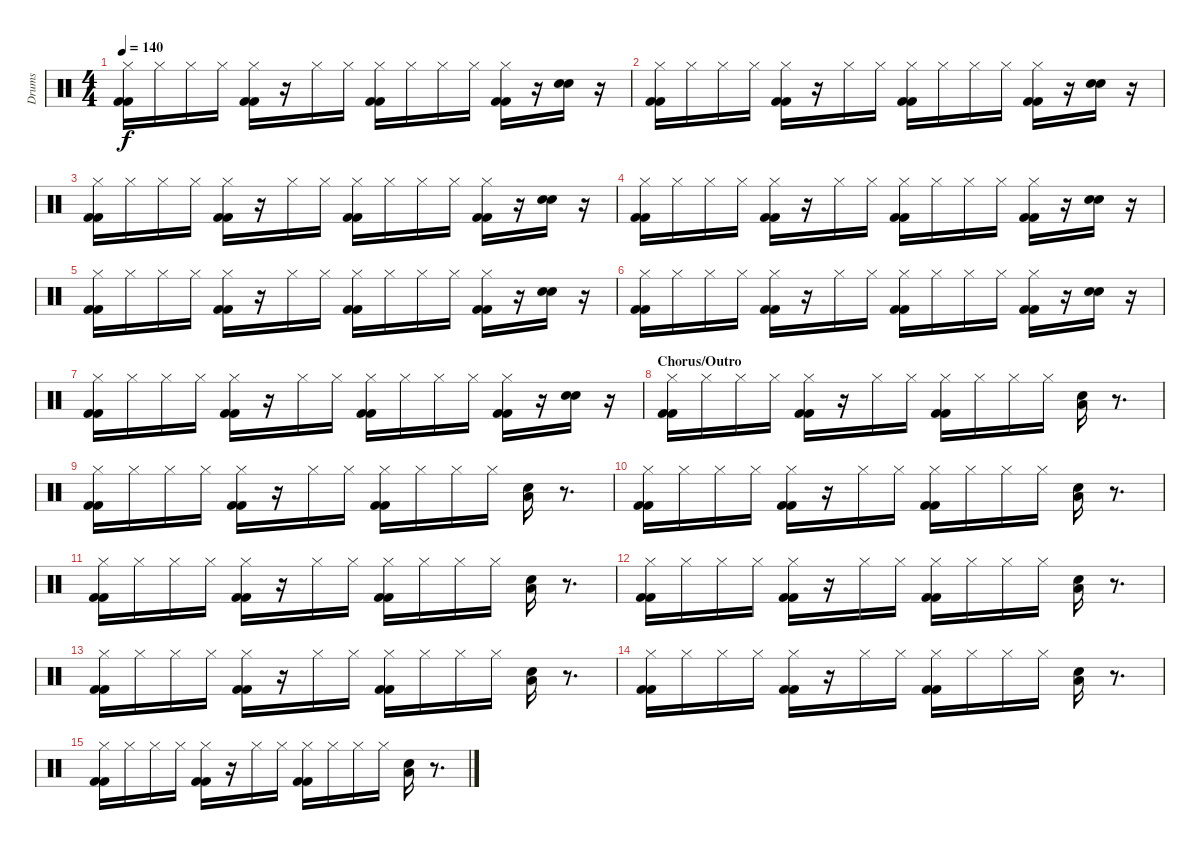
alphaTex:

\track ("Drums" "Drums") {instrument percussion}
\staff {score}
\articulation defaults
\ts (4 4)
\tempo 140
\clef neutral
\ks c
("Hi-Hat (closed)" "Kick (hit) 2" "Kick (hit) 2").16{dy f} "Hi-Hat (closed)".16 "Hi-Hat (closed)".16 "Hi-Hat (closed)".16 ("Hi-Hat (closed)" "Kick (hit) 2" "Kick (hit) 2").16 r.16 "Hi-Hat (closed)".16 "Hi-Hat (closed)".16 ("Hi-Hat (closed)" "Kick (hit) 2" "Kick (hit) 2").16 "Hi-Hat (closed)".16 "Hi-Hat (closed)".16 "Hi-Hat (closed)".16 ("Hi-Hat (closed)" "Kick (hit) 2" "Kick (hit) 2").16 r.16 ("Snare (hit) 2" "Snare (hit) 2").16 r.16 |
("Hi-Hat (closed)" "Kick (hit) 2" "Kick (hit) 2").16 "Hi-Hat (closed)".16 "Hi-Hat (closed)".16 "Hi-Hat (closed)".16 ("Hi-Hat (closed)" "Kick (hit) 2" "Kick (hit) 2").16 r.16 "Hi-Hat (closed)".16 "Hi-Hat (closed)".16 ("Hi-Hat (closed)" "Kick (hit) 2" "Kick (hit) 2").16 "Hi-Hat (closed)".16 "Hi-Hat (closed)".16 "Hi-Hat (closed)".16 ("Hi-Hat (closed)" "Kick (hit) 2" "Kick (hit) 2").16 r.16 ("Snare (hit) 2" "Snare (hit) 2").16 r.16 |
("Hi-Hat (closed)" "Kick (hit) 2" "Kick (hit) 2").16 "Hi-Hat (closed)".16 "Hi-Hat (closed)".16 "Hi-Hat (closed)".16 ("Hi-Hat (closed)" "Kick (hit) 2" "Kick (hit) 2").16 r.16 "Hi-Hat (closed)".16 "Hi-Hat (closed)".16 ("Hi-Hat (closed)" "Kick (hit) 2" "Kick (hit) 2").16 "Hi-Hat (closed)".16 "Hi-Hat (closed)".16 "Hi-Hat (closed)".16 ("Hi-Hat (closed)" "Kick (hit) 2" "Kick (hit) 2").16 r.16 ("Snare (hit) 2" "Snare (hit) 2").16 r.16 |
("Hi-Hat (closed)" "Kick (hit) 2" "Kick (hit) 2").16 "Hi-Hat (closed)".16 "Hi-Hat (closed)".16 "Hi-Hat (closed)".16 ("Hi-Hat (closed)" "Kick (hit) 2" "Kick (hit) 2").16 r.16 "Hi-Hat (closed)".16 "Hi-Hat (closed)".16 ("Hi-Hat (closed)" "Kick (hit) 2" "Kick (hit) 2").16 "Hi-Hat (closed)".16 "Hi-Hat (closed)".16 "Hi-Hat (closed)".16 ("Hi-Hat (closed)" "Kick (hit) 2" "Kick (hit) 2").16 r.16 ("Snare (hit) 2" "Snare (hit) 2").16 r.16 |
("Hi-Hat (closed)" "Kick (hit) 2" "Kick (hit) 2").16 "Hi-Hat (closed)".16 "Hi-Hat (closed)".16 "Hi-Hat (closed)".16 ("Hi-Hat (closed)" "Kick (hit) 2" "Kick (hit) 2").16 r.16 "Hi-Hat (closed)".16 "Hi-Hat (closed)".16 ("Hi-Hat (closed)" "Kick (hit) 2" "Kick (hit) 2").16 "Hi-Hat (closed)".16 "Hi-Hat (closed)".16 "Hi-Hat (closed)".16 ("Hi-Hat (closed)" "Kick (hit) 2" "Kick (hit) 2").16 r.16 ("Snare (hit) 2" "Snare (hit) 2").16 r.16 |
("Hi-Hat (closed)" "Kick (hit) 2" "Kick (hit) 2").16 "Hi-Hat (closed)".16 "Hi-Hat (closed)".16 "Hi-Hat (closed)".16 ("Hi-Hat (closed)" "Kick (hit) 2" "Kick (hit) 2").16 r.16 "Hi-Hat (closed)".16 "Hi-Hat (closed)".16 ("Hi-Hat (closed)" "Kick (hit) 2" "Kick (hit) 2").16 "Hi-Hat (closed)".16 "Hi-Hat (closed)".16 "Hi-Hat (closed)".16 ("Hi-Hat (closed)" "Kick (hit) 2" "Kick (hit) 2").16 r.16 ("Snare (hit) 2" "Snare (hit) 2").16 r.16 |
("Hi-Hat (closed)" "Kick (hit) 2" "Kick (hit) 2").16 "Hi-Hat (closed)".16 "Hi-Hat (closed)".16 "Hi-Hat (closed)".16 ("Hi-Hat (closed)" "Kick (hit) 2" "Kick (hit) 2").16 r.16 "Hi-Hat (closed)".16 "Hi-Hat (closed)".16 ("Hi-Hat (closed)" "Kick (hit) 2" "Kick (hit) 2").16 "Hi-Hat (closed)".16 "Hi-Hat (closed)".16 "Hi-Hat (closed)".16 ("Hi-Hat (closed)" "Kick (hit) 2" "Kick (hit) 2").16 r.16 ("Snare (hit) 2" "Snare (hit) 2").16 r.16 |
\section ("" "Chorus/Outro")
("Hi-Hat (closed)" "Kick (hit) 2" "Kick (hit) 2").16 "Hi-Hat (closed)".16 "Hi-Hat (closed)".16 "Hi-Hat (closed)".16 ("Hi-Hat (closed)" "Kick (hit) 2" "Kick (hit) 2").16 r.16 "Hi-Hat (closed)".16 "Hi-Hat (closed)".16 ("Hi-Hat (closed)" "Kick (hit) 2" "Kick (hit) 2").16 "Hi-Hat (closed)".16 "Hi-Hat (closed)".16 "Hi-Hat (closed)".16 ("Snare (hit) 2" "Low Floor Tom (hit)").16 r.8{d} |
("Hi-Hat (closed)" "Kick (hit) 2" "Kick (hit) 2").16 "Hi-Hat (closed)".16 "Hi-Hat (closed)".16 "Hi-Hat (closed)".16 ("Hi-Hat (closed)" "Kick (hit) 2" "Kick (hit) 2").16 r.16 "Hi-Hat (closed)".16 "Hi-Hat (closed)".16 ("Hi-Hat (closed)" "Kick (hit) 2" "Kick (hit) 2").16 "Hi-Hat (closed)".16 "Hi-Hat (closed)".16 "Hi-Hat (closed)".16 ("Snare (hit) 2" "Low Floor Tom (hit)").16 r.8{d} |
("Hi-Hat (closed)" "Kick (hit) 2" "Kick (hit) 2").16 "Hi-Hat (closed)".16 "Hi-Hat (closed)".16 "Hi-Hat (closed)".16 ("Hi-Hat (closed)" "Kick (hit) 2" "Kick (hit) 2").16 r.16 "Hi-Hat (closed)".16 "Hi-Hat (closed)".16 ("Hi-Hat (closed)" "Kick (hit) 2" "Kick (hit) 2").16 "Hi-Hat (closed)".16 "Hi-Hat (closed)".16 "Hi-Hat (closed)".16 ("Snare (hit) 2" "Low Floor Tom (hit)").16 r.8{d} |
("Hi-Hat (closed)" "Kick (hit) 2" "Kick (hit) 2").16 "Hi-Hat (closed)".16 "Hi-Hat (closed)".16 "Hi-Hat (closed)".16 ("Hi-Hat (closed)" "Kick (hit) 2" "Kick (hit) 2").16 r.16 "Hi-Hat (closed)".16 "Hi-Hat (closed)".16 ("Hi-Hat (closed)" "Kick (hit) 2" "Kick (hit) 2").16 "Hi-Hat (closed)".16 "Hi-Hat (closed)".16 "Hi-Hat (closed)".16 ("Snare (hit) 2" "Low Floor Tom (hit)").16 r.8{d} |
("Hi-Hat (closed)" "Kick (hit) 2" "Kick (hit) 2").16 "Hi-Hat (closed)".16 "Hi-Hat (closed)".16 "Hi-Hat (closed)".16 ("Hi-Hat (closed)" "Kick (hit) 2" "Kick (hit) 2").16 r.16 "Hi-Hat (closed)".16 "Hi-Hat (closed)".16 ("Hi-Hat (closed)" "Kick (hit) 2" "Kick (hit) 2").16 "Hi-Hat (closed)".16 "Hi-Hat (closed)".16 "Hi-Hat (closed)".16 ("Snare (hit) 2" "Low Floor Tom (hit)").16 r.8{d} |
("Hi-Hat (closed)" "Kick (hit) 2" "Kick (hit) 2").16 "Hi-Hat (closed)".16 "Hi-Hat (closed)".16 "Hi-Hat (closed)".16 ("Hi-Hat (closed)" "Kick (hit) 2" "Kick (hit) 2").16 r.16 "Hi-Hat (closed)".16 "Hi-Hat (closed)".16 ("Hi-Hat (closed)" "Kick (hit) 2" "Kick (hit) 2").16 "Hi-Hat (closed)".16 "Hi-Hat (closed)".16 "Hi-Hat (closed)".16 ("Snare (hit) 2" "Low Floor Tom (hit)").16 r.8{d} |
("Hi-Hat (closed)" "Kick (hit) 2" "Kick (hit) 2").16 "Hi-Hat (closed)".16 "Hi-Hat (closed)".16 "Hi-Hat (closed)".16 ("Hi-Hat (closed)" "Kick (hit) 2" "Kick (hit) 2").16 r.16 "Hi-Hat (closed)".16 "Hi-Hat (closed)".16 ("Hi-Hat (closed)" "Kick (hit) 2" "Kick (hit) 2").16 "Hi-Hat (closed)".16 "Hi-Hat (closed)".16 "Hi-Hat (closed)".16 ("Snare (hit) 2" "Low Floor Tom (hit)").16 r.8{d} |
("Hi-Hat (closed)" "Kick (hit) 2" "Kick (hit) 2").16 "Hi-Hat (closed)".16 "Hi-Hat (closed)".16 "Hi-Hat (closed)".16 ("Hi-Hat (closed)" "Kick (hit) 2" "Kick (hit) 2").16 r.16 "Hi-Hat (closed)".16 "Hi-Hat (closed)".16 ("Hi-Hat (closed)" "Kick (hit) 2" "Kick (hit) 2").16 "Hi-Hat (closed)".16 "Hi-Hat (closed)".16 "Hi-Hat (closed)".16 ("Snare (hit) 2" "Low Floor Tom (hit)").16 r.8{d}
